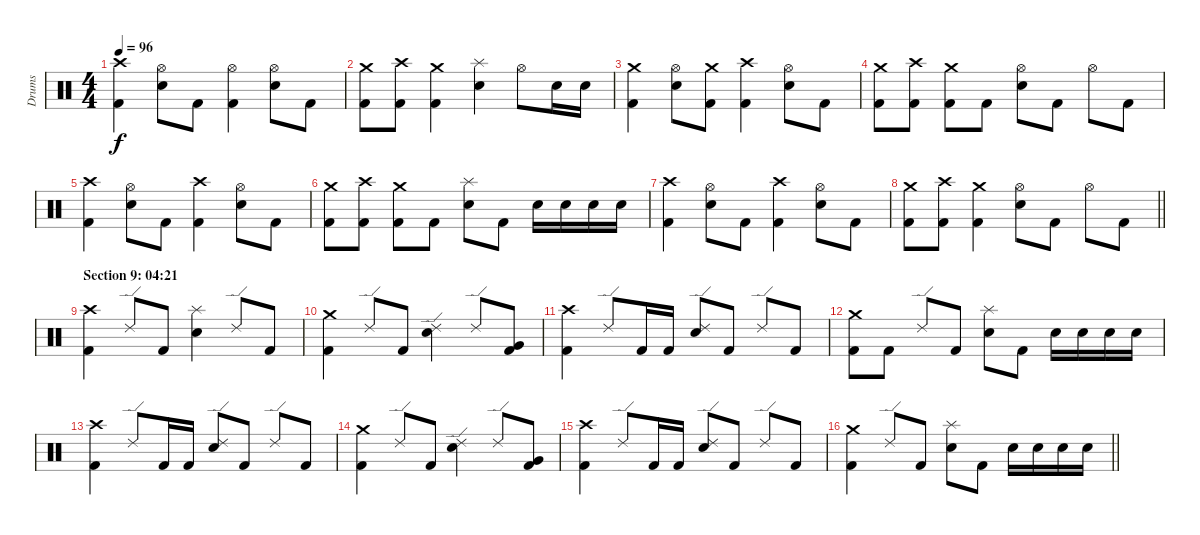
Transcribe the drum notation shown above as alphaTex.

\track ("Drums" "Drums") {instrument percussion}
\staff {score}
\articulation defaults
\ts (4 4)
\tempo 96
\clef neutral
\ks c
("Crash high (hit)" "Kick (hit) 2").4{dy f} ("Hi-Hat (open)" "Electric Snare (hit)").8 "Kick (hit) 2".8 ("Hi-Hat (open)" "Kick (hit) 2").4 ("Hi-Hat (open)" "Electric Snare (hit)").8 "Kick (hit) 2".8 |
("Crash medium (hit)" "Kick (hit) 2").8 ("Crash high (hit)" "Kick (hit) 2").8 ("Crash medium (hit)" "Kick (hit) 2").4 ("Splash (hit)" "Electric Snare (hit)").4 "Hi-Hat (open)".8 "Electric Snare (hit)".16 "Electric Snare (hit)".16 |
("Crash medium (hit)" "Kick (hit) 2").4 ("Hi-Hat (open)" "Electric Snare (hit)").8 ("Crash medium (hit)" "Kick (hit) 2").8 ("Crash high (hit)" "Kick (hit) 2").4 ("Hi-Hat (open)" "Electric Snare (hit)").8 "Kick (hit) 2".8 |
("Crash medium (hit)" "Kick (hit) 2").8 ("Crash high (hit)" "Kick (hit) 2").8 ("Crash medium (hit)" "Kick (hit) 2").8 "Kick (hit) 2".8 ("Hi-Hat (open)" "Electric Snare (hit)").8 "Kick (hit) 2".8 "Hi-Hat (open)".8 "Kick (hit) 2".8 |
("Crash high (hit)" "Kick (hit) 2").4 ("Hi-Hat (open)" "Electric Snare (hit)").8 "Kick (hit) 2".8 ("Crash high (hit)" "Kick (hit) 2").4 ("Hi-Hat (open)" "Electric Snare (hit)").8 "Kick (hit) 2".8 |
("Crash medium (hit)" "Kick (hit) 2").8 ("Crash high (hit)" "Kick (hit) 2").8 ("Crash medium (hit)" "Kick (hit) 2").8 "Kick (hit) 2".8 ("Splash (hit)" "Electric Snare (hit)").8 "Kick (hit) 2".8 "Electric Snare (hit)".16 "Electric Snare (hit)".16 "Electric Snare (hit)".16 "Electric Snare (hit)".16 |
("Crash high (hit)" "Kick (hit) 2").4 ("Hi-Hat (open)" "Electric Snare (hit)").8 "Kick (hit) 2".8 ("Crash high (hit)" "Kick (hit) 2").4 ("Hi-Hat (open)" "Electric Snare (hit)").8 "Kick (hit) 2".8 |
\barLineRight lightlight
("Crash medium (hit)" "Kick (hit) 2").8 ("Crash high (hit)" "Kick (hit) 2").8 ("Crash medium (hit)" "Kick (hit) 2").4 ("Hi-Hat (open)" "Electric Snare (hit)").8 "Kick (hit) 2".8 "Hi-Hat (open)".8 "Kick (hit) 2".8 |
\section ("" "Section 9: 04:21")
("Crash high (hit)" "Kick (hit) 2").4 "Ride (edge) 2".8 "Kick (hit) 2".8 ("Splash (hit)" "Electric Snare (hit)").4 "Ride (edge) 2".8 "Kick (hit) 2".8 |
("Crash medium (hit)" "Kick (hit) 2").4 "Ride (edge) 2".8 "Kick (hit) 2".8 ("Ride (edge) 2" "Electric Snare (hit)").4 "Ride (edge) 2".8 ("Very Low Tom (hit)" "Kick (hit) 2").8 |
("Crash high (hit)" "Kick (hit) 2").4 "Ride (edge) 2".8 "Kick (hit) 2".16 "Kick (hit) 2".16 ("Ride (edge) 2" "Electric Snare (hit)").8 "Kick (hit) 2".8 "Ride (edge) 2".8 "Kick (hit) 2".8 |
("Crash medium (hit)" "Kick (hit) 2").8 "Kick (hit) 2".8 "Ride (edge) 2".8 "Kick (hit) 2".8 ("Splash (hit)" "Electric Snare (hit)").8 "Kick (hit) 2".8 "Electric Snare (hit)".16 "Electric Snare (hit)".16 "Electric Snare (hit)".16 "Electric Snare (hit)".16 |
("Crash high (hit)" "Kick (hit) 2").4 "Ride (edge) 2".8 "Kick (hit) 2".16 "Kick (hit) 2".16 ("Ride (edge) 2" "Electric Snare (hit)").8 "Kick (hit) 2".8 "Ride (edge) 2".8 "Kick (hit) 2".8 |
("Crash medium (hit)" "Kick (hit) 2").4 "Ride (edge) 2".8 "Kick (hit) 2".8 ("Ride (edge) 2" "Electric Snare (hit)").4 "Ride (edge) 2".8 ("Very Low Tom (hit)" "Kick (hit) 2").8 |
("Crash high (hit)" "Kick (hit) 2").4 "Ride (edge) 2".8 "Kick (hit) 2".16 "Kick (hit) 2".16 ("Ride (edge) 2" "Electric Snare (hit)").8 "Kick (hit) 2".8 "Ride (edge) 2".8 "Kick (hit) 2".8 |
\barLineRight lightlight
("Crash medium (hit)" "Kick (hit) 2").4 "Ride (edge) 2".8 "Kick (hit) 2".8 ("Splash (hit)" "Electric Snare (hit)").8 "Kick (hit) 2".8 "Electric Snare (hit)".16 "Electric Snare (hit)".16 "Electric Snare (hit)".16 "Electric Snare (hit)".16
